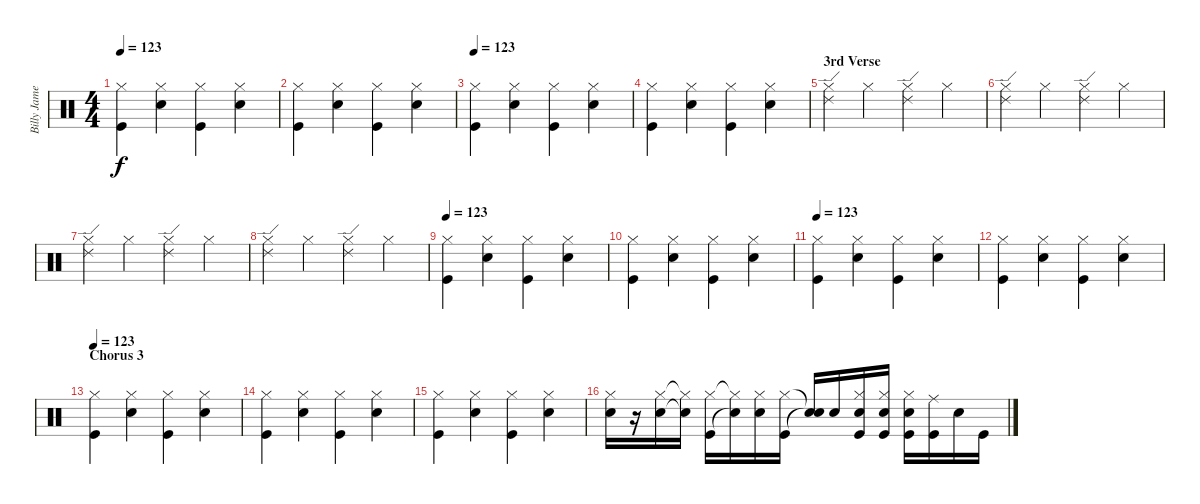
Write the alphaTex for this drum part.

\track ("Billy James (Drums)" "Billy Jame") {instrument percussion}
\staff {score}
\articulation defaults
\ts (4 4)
\tempo 123
\clef neutral
\ks c
("Kick (hit)" "Hi-Hat (closed)").4{dy f} ("Snare (hit) 2" "Hi-Hat (closed)").4 ("Kick (hit)" "Hi-Hat (closed)").4 ("Snare (hit) 2" "Hi-Hat (closed)").4 |
("Kick (hit)" "Hi-Hat (closed)").4 ("Snare (hit) 2" "Hi-Hat (closed)").4 ("Kick (hit)" "Hi-Hat (closed)").4 ("Snare (hit) 2" "Hi-Hat (closed)").4 |
\tempo 123
("Kick (hit)" "Hi-Hat (closed)").4 ("Snare (hit) 2" "Hi-Hat (closed)").4 ("Kick (hit)" "Hi-Hat (closed)").4 ("Snare (hit) 2" "Hi-Hat (closed)").4 |
("Kick (hit)" "Hi-Hat (closed)").4 ("Snare (hit) 2" "Hi-Hat (closed)").4 ("Kick (hit)" "Hi-Hat (closed)").4 ("Snare (hit) 2" "Hi-Hat (closed)").4 |
\section ("" "3rd Verse")
("Hi-Hat (closed)" "Ride (edge) 2").4 "Hi-Hat (closed)".4 ("Hi-Hat (closed)" "Ride (edge) 2").4 "Hi-Hat (closed)".4 |
("Hi-Hat (closed)" "Ride (edge) 2").4 "Hi-Hat (closed)".4 ("Hi-Hat (closed)" "Ride (edge) 2").4 "Hi-Hat (closed)".4 |
("Hi-Hat (closed)" "Ride (edge) 2").4 "Hi-Hat (closed)".4 ("Hi-Hat (closed)" "Ride (edge) 2").4 "Hi-Hat (closed)".4 |
("Hi-Hat (closed)" "Ride (edge) 2").4 "Hi-Hat (closed)".4 ("Hi-Hat (closed)" "Ride (edge) 2").4 "Hi-Hat (closed)".4 |
\tempo 123
("Kick (hit)" "Hi-Hat (closed)").4 ("Snare (hit) 2" "Hi-Hat (closed)").4 ("Kick (hit)" "Hi-Hat (closed)").4 ("Snare (hit) 2" "Hi-Hat (closed)").4 |
("Kick (hit)" "Hi-Hat (closed)").4 ("Snare (hit) 2" "Hi-Hat (closed)").4 ("Kick (hit)" "Hi-Hat (closed)").4 ("Snare (hit) 2" "Hi-Hat (closed)").4 |
\tempo 123
("Kick (hit)" "Hi-Hat (closed)").4 ("Snare (hit) 2" "Hi-Hat (closed)").4 ("Kick (hit)" "Hi-Hat (closed)").4 ("Snare (hit) 2" "Hi-Hat (closed)").4 |
("Kick (hit)" "Hi-Hat (closed)").4 ("Snare (hit) 2" "Hi-Hat (closed)").4 ("Kick (hit)" "Hi-Hat (closed)").4 ("Snare (hit) 2" "Hi-Hat (closed)").4 |
\section ("" "Chorus 3")
\tempo 133
\tempo 123
("Kick (hit)" "Hi-Hat (closed)").4 ("Snare (hit) 2" "Hi-Hat (closed)").4 ("Kick (hit)" "Hi-Hat (closed)").4 ("Snare (hit) 2" "Hi-Hat (closed)").4 |
("Kick (hit)" "Hi-Hat (closed)").4 ("Snare (hit) 2" "Hi-Hat (closed)").4 ("Kick (hit)" "Hi-Hat (closed)").4 ("Snare (hit) 2" "Hi-Hat (closed)").4 |
("Kick (hit)" "Hi-Hat (closed)").4 ("Snare (hit) 2" "Hi-Hat (closed)").4 ("Kick (hit)" "Hi-Hat (closed)").4 ("Snare (hit) 2" "Hi-Hat (closed)").4 |
("Hi-Hat (closed)" "Snare (hit) 2").16 r.16 ("Hi-Hat (closed)" "Snare (hit) 2").16 ("Hi-Hat (closed)"{t} "Snare (hit) 2"{t}).16 ("Hi-Hat (closed)" "Kick (hit)").16 ("Hi-Hat (closed)"{t} "Snare (hit) 2"{t}).16 ("Hi-Hat (closed)" "Snare (hit) 2").16 ("Hi-Hat (closed)" "Kick (hit)").16 ("Snare (hit)"{t} "Snare (hit) 2"{t}).16 "Snare (hit) 2".16 ("Hi-Hat (closed)" "Kick (hit)" "Snare (hit) 2").16 ("Hi-Hat (closed)" "Kick (hit)" "Snare (hit) 2").16 ("Hi-Hat (closed)" "Kick (hit)" "Snare (hit) 2").16 ("Ride (middle)" "Kick (hit)").16 "Snare (hit) 2".16 "Kick (hit)".16
